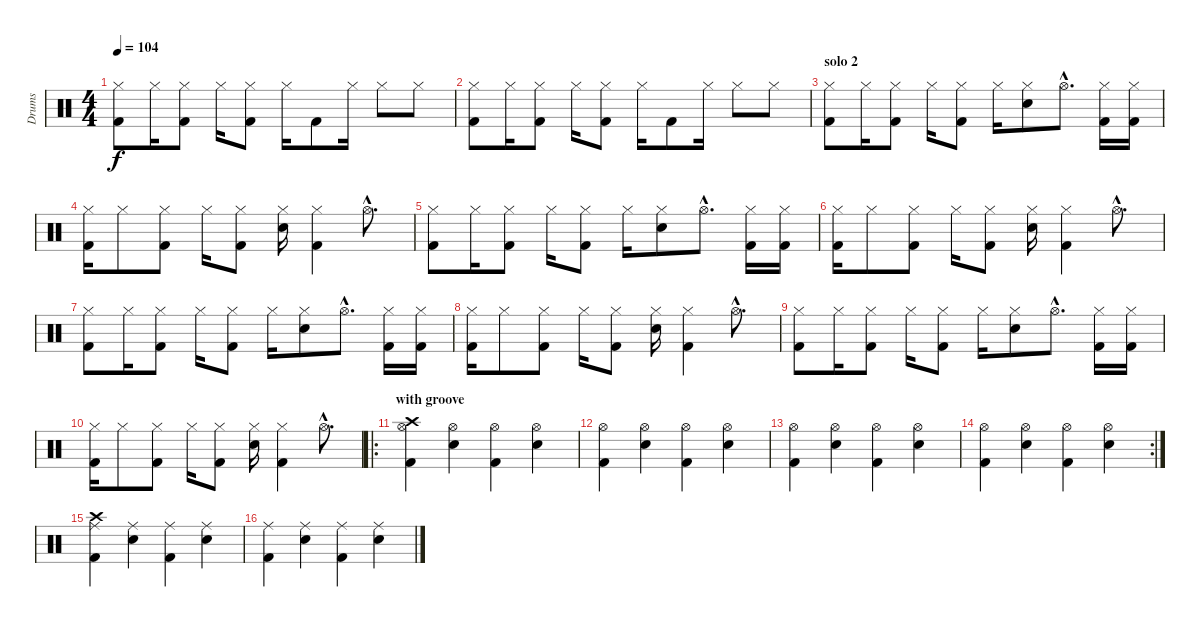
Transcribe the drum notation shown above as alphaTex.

\track ("Drums" "Drums") {instrument percussion}
\staff {score}
\articulation defaults
\ts (4 4)
\tempo 104
\clef neutral
\ks c
("Kick (hit) 2" "Hi-Hat (closed)").8{dy f} "Hi-Hat (closed)".16 ("Kick (hit) 2" "Hi-Hat (closed)").8 "Hi-Hat (closed)".16 ("Kick (hit) 2" "Hi-Hat (closed)").8 "Hi-Hat (closed)".16 "Kick (hit) 2".8 "Hi-Hat (closed)".16 "Hi-Hat (closed)".8 "Hi-Hat (closed)".8 |
("Kick (hit) 2" "Hi-Hat (closed)").8 "Hi-Hat (closed)".16 ("Kick (hit) 2" "Hi-Hat (closed)").8 "Hi-Hat (closed)".16 ("Kick (hit) 2" "Hi-Hat (closed)").8 "Hi-Hat (closed)".16 "Kick (hit) 2".8 "Hi-Hat (closed)".16 "Hi-Hat (closed)".8 "Hi-Hat (closed)".8 |
\section ("" "solo 2")
("Kick (hit) 2" "Hi-Hat (closed)").8 "Hi-Hat (closed)".16 ("Kick (hit) 2" "Hi-Hat (closed)").8 "Hi-Hat (closed)".16 ("Kick (hit) 2" "Hi-Hat (closed)").8 "Hi-Hat (closed)".16 ("Snare (hit) 2" "Hi-Hat (closed)").8 "Hi-Hat (open)"{hac}.8{d} ("Kick (hit) 2" "Hi-Hat (closed)").16 ("Kick (hit) 2" "Hi-Hat (closed)").16 |
("Kick (hit) 2" "Hi-Hat (closed)").16 "Hi-Hat (closed)".8 ("Kick (hit) 2" "Hi-Hat (closed)").8 "Hi-Hat (closed)".16 ("Kick (hit) 2" "Hi-Hat (closed)").8 ("Snare (hit) 2" "Hi-Hat (closed)").16 ("Kick (hit) 2" "Hi-Hat (closed)").4 "Hi-Hat (open)"{hac}.8{d} |
("Kick (hit) 2" "Hi-Hat (closed)").8 "Hi-Hat (closed)".16 ("Kick (hit) 2" "Hi-Hat (closed)").8 "Hi-Hat (closed)".16 ("Kick (hit) 2" "Hi-Hat (closed)").8 "Hi-Hat (closed)".16 ("Snare (hit) 2" "Hi-Hat (closed)").8 "Hi-Hat (open)"{hac}.8{d} ("Kick (hit) 2" "Hi-Hat (closed)").16 ("Kick (hit) 2" "Hi-Hat (closed)").16 |
("Kick (hit) 2" "Hi-Hat (closed)").16 "Hi-Hat (closed)".8 ("Kick (hit) 2" "Hi-Hat (closed)").8 "Hi-Hat (closed)".16 ("Kick (hit) 2" "Hi-Hat (closed)").8 ("Snare (hit) 2" "Hi-Hat (closed)").16 ("Kick (hit) 2" "Hi-Hat (closed)").4 "Hi-Hat (open)"{hac}.8{d} |
("Kick (hit) 2" "Hi-Hat (closed)").8 "Hi-Hat (closed)".16 ("Kick (hit) 2" "Hi-Hat (closed)").8 "Hi-Hat (closed)".16 ("Kick (hit) 2" "Hi-Hat (closed)").8 "Hi-Hat (closed)".16 ("Snare (hit) 2" "Hi-Hat (closed)").8 "Hi-Hat (open)"{hac}.8{d} ("Kick (hit) 2" "Hi-Hat (closed)").16 ("Kick (hit) 2" "Hi-Hat (closed)").16 |
("Kick (hit) 2" "Hi-Hat (closed)").16 "Hi-Hat (closed)".8 ("Kick (hit) 2" "Hi-Hat (closed)").8 "Hi-Hat (closed)".16 ("Kick (hit) 2" "Hi-Hat (closed)").8 ("Snare (hit) 2" "Hi-Hat (closed)").16 ("Kick (hit) 2" "Hi-Hat (closed)").4 "Hi-Hat (open)"{hac}.8{d} |
("Kick (hit) 2" "Hi-Hat (closed)").8 "Hi-Hat (closed)".16 ("Kick (hit) 2" "Hi-Hat (closed)").8 "Hi-Hat (closed)".16 ("Kick (hit) 2" "Hi-Hat (closed)").8 "Hi-Hat (closed)".16 ("Snare (hit) 2" "Hi-Hat (closed)").8 "Hi-Hat (open)"{hac}.8{d} ("Kick (hit) 2" "Hi-Hat (closed)").16 ("Kick (hit) 2" "Hi-Hat (closed)").16 |
("Kick (hit) 2" "Hi-Hat (closed)").16 "Hi-Hat (closed)".8 ("Kick (hit) 2" "Hi-Hat (closed)").8 "Hi-Hat (closed)".16 ("Kick (hit) 2" "Hi-Hat (closed)").8 ("Snare (hit) 2" "Hi-Hat (closed)").16 ("Kick (hit) 2" "Hi-Hat (closed)").4 "Hi-Hat (open)"{hac}.8{d} |
\ro
\section ("" "with groove")
("Kick (hit) 2" "Hi-Hat (open)" "Crash high (hit)").4 ("Snare (hit) 2" "Hi-Hat (open)").4 ("Kick (hit) 2" "Hi-Hat (open)").4 ("Snare (hit) 2" "Hi-Hat (open)").4 |
("Kick (hit) 2" "Hi-Hat (open)").4 ("Snare (hit) 2" "Hi-Hat (open)").4 ("Kick (hit) 2" "Hi-Hat (open)").4 ("Snare (hit) 2" "Hi-Hat (open)").4 |
("Kick (hit) 2" "Hi-Hat (open)").4 ("Snare (hit) 2" "Hi-Hat (open)").4 ("Kick (hit) 2" "Hi-Hat (open)").4 ("Snare (hit) 2" "Hi-Hat (open)").4 |
\rc 2
("Kick (hit) 2" "Hi-Hat (open)").4 ("Snare (hit) 2" "Hi-Hat (open)").4 ("Kick (hit) 2" "Hi-Hat (open)").4 ("Snare (hit) 2" "Hi-Hat (open)").4 |
("Kick (hit) 2" "Ride (middle)" "Crash high (hit)").4 ("Snare (hit) 2" "Ride (middle)").4 ("Kick (hit) 2" "Ride (middle)").4 ("Snare (hit) 2" "Ride (middle)").4 |
("Kick (hit) 2" "Ride (middle)").4 ("Snare (hit) 2" "Ride (middle)").4 ("Kick (hit) 2" "Ride (middle)").4 ("Snare (hit) 2" "Ride (middle)").4
